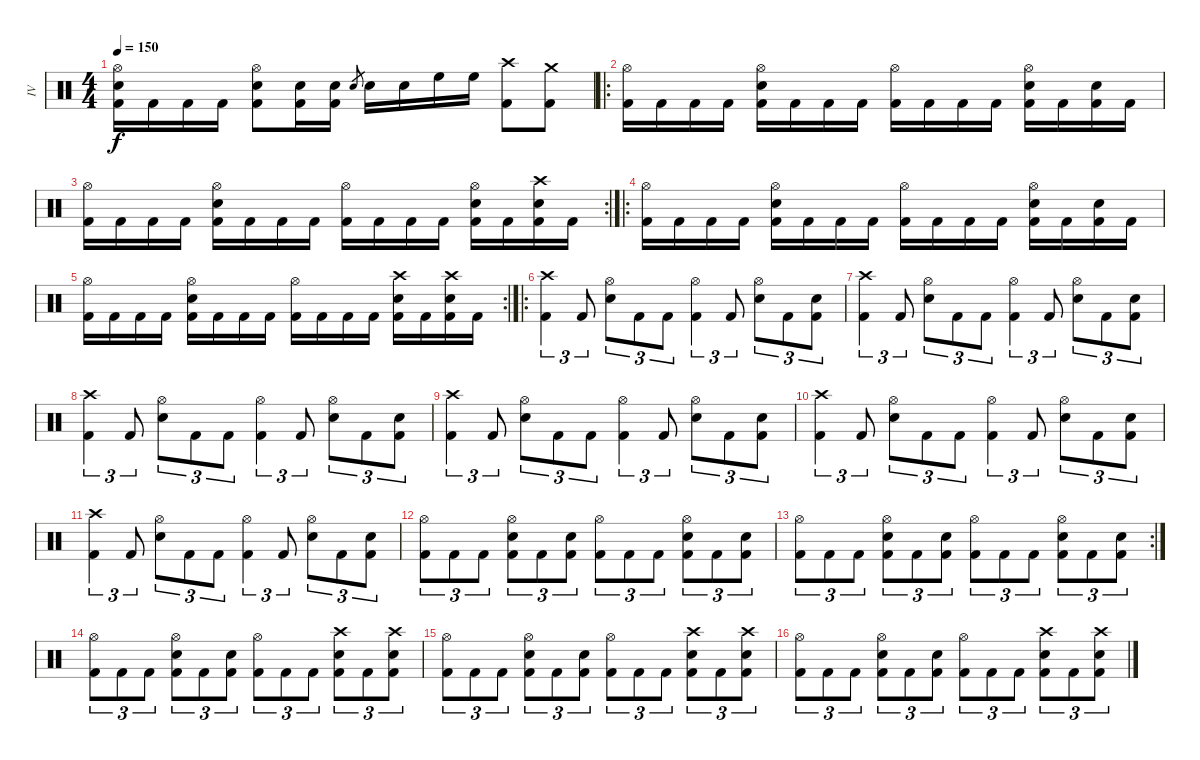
\track ("IV" "IV") {instrument percussion}
\staff {score}
\articulation defaults
\ts (4 4)
\tempo 150
\clef neutral
\ks c
("Hi-Hat (open)" "Snare (hit) 2" "Kick (hit) 2").16{dy f} "Kick (hit) 2".16 "Kick (hit) 2".16 "Kick (hit) 2".16 ("Hi-Hat (open)" "Snare (hit) 2" "Kick (hit) 2").8 ("Snare (hit) 2" "Kick (hit) 2").16 ("Snare (hit) 2" "Kick (hit) 2").16 "Snare (hit) 2".8{gr} "Snare (hit) 2".16 "Snare (hit) 2".16 "High Floor Tom (hit)".16 "High Floor Tom (hit)".16 ("Crash high (hit)" "Kick (hit) 2").8 ("Crash medium (hit)" "Kick (hit) 2").8 |
\ro
("Hi-Hat (open)" "Kick (hit) 2").16 "Kick (hit) 2".16 "Kick (hit) 2".16 "Kick (hit) 2".16 ("Hi-Hat (open)" "Snare (hit) 2" "Kick (hit) 2").16 "Kick (hit) 2".16 "Kick (hit) 2".16 "Kick (hit) 2".16 ("Hi-Hat (open)" "Kick (hit) 2").16 "Kick (hit) 2".16 "Kick (hit) 2".16 "Kick (hit) 2".16 ("Hi-Hat (open)" "Snare (hit) 2" "Kick (hit) 2").16 "Kick (hit) 2".16 ("Snare (hit) 2" "Kick (hit) 2").16 "Kick (hit) 2".16 |
\rc 2
("Hi-Hat (open)" "Kick (hit) 2").16 "Kick (hit) 2".16 "Kick (hit) 2".16 "Kick (hit) 2".16 ("Hi-Hat (open)" "Snare (hit) 2" "Kick (hit) 2").16 "Kick (hit) 2".16 "Kick (hit) 2".16 "Kick (hit) 2".16 ("Hi-Hat (open)" "Kick (hit) 2").16 "Kick (hit) 2".16 "Kick (hit) 2".16 "Kick (hit) 2".16 ("Hi-Hat (open)" "Snare (hit) 2" "Kick (hit) 2").16 "Kick (hit) 2".16 ("Crash high (hit)" "Snare (hit) 2" "Kick (hit) 2").16 "Kick (hit) 2".16 |
\ro
("Hi-Hat (open)" "Kick (hit) 2").16 "Kick (hit) 2".16 "Kick (hit) 2".16 "Kick (hit) 2".16 ("Hi-Hat (open)" "Snare (hit) 2" "Kick (hit) 2").16 "Kick (hit) 2".16 "Kick (hit) 2".16 "Kick (hit) 2".16 ("Hi-Hat (open)" "Kick (hit) 2").16 "Kick (hit) 2".16 "Kick (hit) 2".16 "Kick (hit) 2".16 ("Hi-Hat (open)" "Snare (hit) 2" "Kick (hit) 2").16 "Kick (hit) 2".16 ("Snare (hit) 2" "Kick (hit) 2").16 "Kick (hit) 2".16 |
\rc 2
("Hi-Hat (open)" "Kick (hit) 2").16 "Kick (hit) 2".16 "Kick (hit) 2".16 "Kick (hit) 2".16 ("Hi-Hat (open)" "Snare (hit) 2" "Kick (hit) 2").16 "Kick (hit) 2".16 "Kick (hit) 2".16 "Kick (hit) 2".16 ("Hi-Hat (open)" "Kick (hit) 2").16 "Kick (hit) 2".16 "Kick (hit) 2".16 "Kick (hit) 2".16 ("Crash high (hit)" "Snare (hit) 2" "Kick (hit) 2").16 "Kick (hit) 2".16 ("Crash high (hit)" "Snare (hit) 2" "Kick (hit) 2").16 "Kick (hit) 2".16 |
\ro
("Crash high (hit)" "Kick (hit) 2").4{tu (3 2)} "Kick (hit) 2".8{tu (3 2)} ("Hi-Hat (open)" "Snare (hit) 2").8{tu (3 2)} "Kick (hit) 2".8{tu (3 2)} "Kick (hit) 2".8{tu (3 2)} ("Hi-Hat (open)" "Kick (hit) 2").4{tu (3 2)} "Kick (hit) 2".8{tu (3 2)} ("Hi-Hat (open)" "Snare (hit) 2").8{tu (3 2)} "Kick (hit) 2".8{tu (3 2)} ("Snare (hit) 2" "Kick (hit) 2").8{tu (3 2)} |
("Crash high (hit)" "Kick (hit) 2").4{tu (3 2)} "Kick (hit) 2".8{tu (3 2)} ("Hi-Hat (open)" "Snare (hit) 2").8{tu (3 2)} "Kick (hit) 2".8{tu (3 2)} "Kick (hit) 2".8{tu (3 2)} ("Hi-Hat (open)" "Kick (hit) 2").4{tu (3 2)} "Kick (hit) 2".8{tu (3 2)} ("Hi-Hat (open)" "Snare (hit) 2").8{tu (3 2)} "Kick (hit) 2".8{tu (3 2)} ("Snare (hit) 2" "Kick (hit) 2").8{tu (3 2)} |
("Crash high (hit)" "Kick (hit) 2").4{tu (3 2)} "Kick (hit) 2".8{tu (3 2)} ("Hi-Hat (open)" "Snare (hit) 2").8{tu (3 2)} "Kick (hit) 2".8{tu (3 2)} "Kick (hit) 2".8{tu (3 2)} ("Hi-Hat (open)" "Kick (hit) 2").4{tu (3 2)} "Kick (hit) 2".8{tu (3 2)} ("Hi-Hat (open)" "Snare (hit) 2").8{tu (3 2)} "Kick (hit) 2".8{tu (3 2)} ("Snare (hit) 2" "Kick (hit) 2").8{tu (3 2)} |
("Crash high (hit)" "Kick (hit) 2").4{tu (3 2)} "Kick (hit) 2".8{tu (3 2)} ("Hi-Hat (open)" "Snare (hit) 2").8{tu (3 2)} "Kick (hit) 2".8{tu (3 2)} "Kick (hit) 2".8{tu (3 2)} ("Hi-Hat (open)" "Kick (hit) 2").4{tu (3 2)} "Kick (hit) 2".8{tu (3 2)} ("Hi-Hat (open)" "Snare (hit) 2").8{tu (3 2)} "Kick (hit) 2".8{tu (3 2)} ("Snare (hit) 2" "Kick (hit) 2").8{tu (3 2)} |
("Crash high (hit)" "Kick (hit) 2").4{tu (3 2)} "Kick (hit) 2".8{tu (3 2)} ("Hi-Hat (open)" "Snare (hit) 2").8{tu (3 2)} "Kick (hit) 2".8{tu (3 2)} "Kick (hit) 2".8{tu (3 2)} ("Hi-Hat (open)" "Kick (hit) 2").4{tu (3 2)} "Kick (hit) 2".8{tu (3 2)} ("Hi-Hat (open)" "Snare (hit) 2").8{tu (3 2)} "Kick (hit) 2".8{tu (3 2)} ("Snare (hit) 2" "Kick (hit) 2").8{tu (3 2)} |
("Crash high (hit)" "Kick (hit) 2").4{tu (3 2)} "Kick (hit) 2".8{tu (3 2)} ("Hi-Hat (open)" "Snare (hit) 2").8{tu (3 2)} "Kick (hit) 2".8{tu (3 2)} "Kick (hit) 2".8{tu (3 2)} ("Hi-Hat (open)" "Kick (hit) 2").4{tu (3 2)} "Kick (hit) 2".8{tu (3 2)} ("Hi-Hat (open)" "Snare (hit) 2").8{tu (3 2)} "Kick (hit) 2".8{tu (3 2)} ("Snare (hit) 2" "Kick (hit) 2").8{tu (3 2)} |
("Hi-Hat (open)" "Kick (hit) 2").8{tu (3 2)} "Kick (hit) 2".8{tu (3 2)} "Kick (hit) 2".8{tu (3 2)} ("Hi-Hat (open)" "Snare (hit) 2" "Kick (hit) 2").8{tu (3 2)} "Kick (hit) 2".8{tu (3 2)} ("Snare (hit) 2" "Kick (hit) 2").8{tu (3 2)} ("Hi-Hat (open)" "Kick (hit) 2").8{tu (3 2)} "Kick (hit) 2".8{tu (3 2)} "Kick (hit) 2".8{tu (3 2)} ("Hi-Hat (open)" "Snare (hit) 2" "Kick (hit) 2").8{tu (3 2)} "Kick (hit) 2".8{tu (3 2)} ("Snare (hit) 2" "Kick (hit) 2").8{tu (3 2)} |
\rc 2
("Hi-Hat (open)" "Kick (hit) 2").8{tu (3 2)} "Kick (hit) 2".8{tu (3 2)} "Kick (hit) 2".8{tu (3 2)} ("Hi-Hat (open)" "Snare (hit) 2" "Kick (hit) 2").8{tu (3 2)} "Kick (hit) 2".8{tu (3 2)} ("Snare (hit) 2" "Kick (hit) 2").8{tu (3 2)} ("Hi-Hat (open)" "Kick (hit) 2").8{tu (3 2)} "Kick (hit) 2".8{tu (3 2)} "Kick (hit) 2".8{tu (3 2)} ("Hi-Hat (open)" "Snare (hit) 2" "Kick (hit) 2").8{tu (3 2)} "Kick (hit) 2".8{tu (3 2)} ("Snare (hit) 2" "Kick (hit) 2").8{tu (3 2)} |
("Hi-Hat (open)" "Kick (hit) 2").8{tu (3 2)} "Kick (hit) 2".8{tu (3 2)} "Kick (hit) 2".8{tu (3 2)} ("Hi-Hat (open)" "Snare (hit) 2" "Kick (hit) 2").8{tu (3 2)} "Kick (hit) 2".8{tu (3 2)} ("Snare (hit) 2" "Kick (hit) 2").8{tu (3 2)} ("Hi-Hat (open)" "Kick (hit) 2").8{tu (3 2)} "Kick (hit) 2".8{tu (3 2)} "Kick (hit) 2".8{tu (3 2)} ("Crash high (hit)" "Snare (hit) 2" "Kick (hit) 2").8{tu (3 2)} "Kick (hit) 2".8{tu (3 2)} ("Crash high (hit)" "Snare (hit) 2" "Kick (hit) 2").8{tu (3 2)} |
("Hi-Hat (open)" "Kick (hit) 2").8{tu (3 2)} "Kick (hit) 2".8{tu (3 2)} "Kick (hit) 2".8{tu (3 2)} ("Hi-Hat (open)" "Snare (hit) 2" "Kick (hit) 2").8{tu (3 2)} "Kick (hit) 2".8{tu (3 2)} ("Snare (hit) 2" "Kick (hit) 2").8{tu (3 2)} ("Hi-Hat (open)" "Kick (hit) 2").8{tu (3 2)} "Kick (hit) 2".8{tu (3 2)} "Kick (hit) 2".8{tu (3 2)} ("Crash high (hit)" "Snare (hit) 2" "Kick (hit) 2").8{tu (3 2)} "Kick (hit) 2".8{tu (3 2)} ("Crash high (hit)" "Snare (hit) 2" "Kick (hit) 2").8{tu (3 2)} |
("Hi-Hat (open)" "Kick (hit) 2").8{tu (3 2)} "Kick (hit) 2".8{tu (3 2)} "Kick (hit) 2".8{tu (3 2)} ("Hi-Hat (open)" "Snare (hit) 2" "Kick (hit) 2").8{tu (3 2)} "Kick (hit) 2".8{tu (3 2)} ("Snare (hit) 2" "Kick (hit) 2").8{tu (3 2)} ("Hi-Hat (open)" "Kick (hit) 2").8{tu (3 2)} "Kick (hit) 2".8{tu (3 2)} "Kick (hit) 2".8{tu (3 2)} ("Crash high (hit)" "Snare (hit) 2" "Kick (hit) 2").8{tu (3 2)} "Kick (hit) 2".8{tu (3 2)} ("Crash high (hit)" "Snare (hit) 2" "Kick (hit) 2").8{tu (3 2)}
